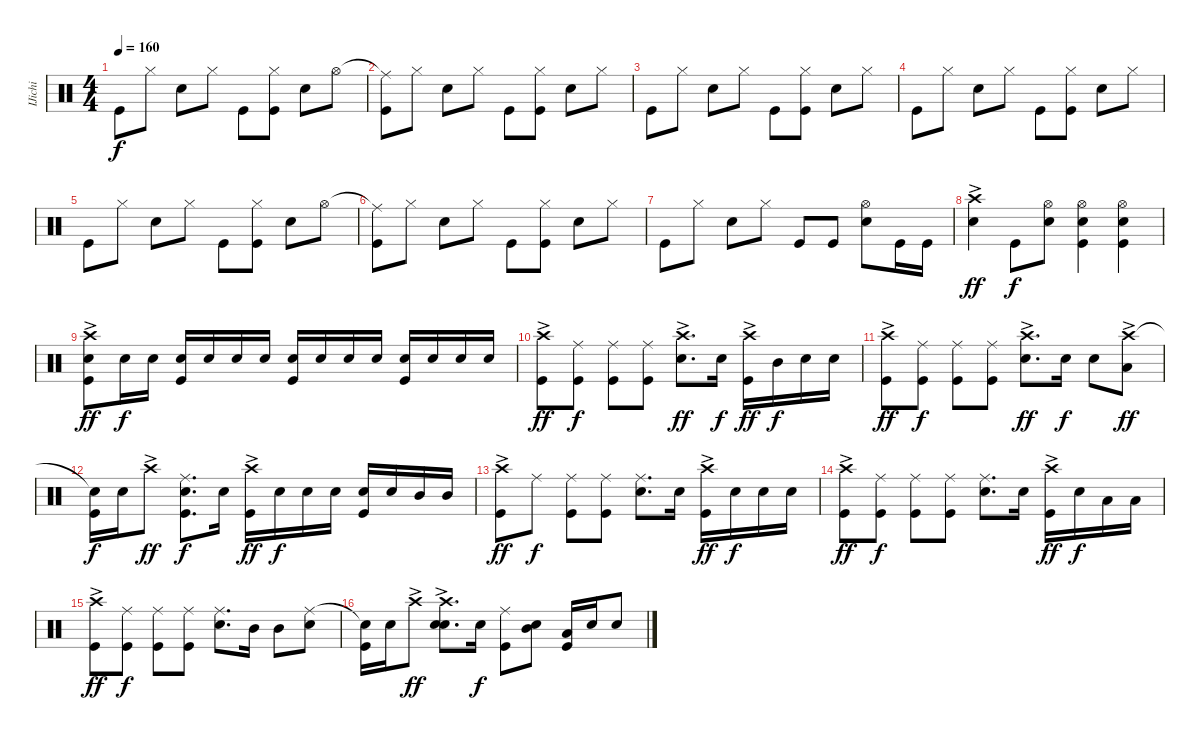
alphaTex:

\track ("IJichi" "IJichi") {instrument percussion}
\staff {score}
\articulation defaults
\ts (4 4)
\tempo 160
\clef neutral
\ks c "Kick (hit)".8{dy f} "Hi-Hat (closed)".8 "Snare (hit) 2".8 "Hi-Hat (closed)".8 "Kick (hit)".8
("Hi-Hat (closed)" "Kick (hit)").8 "Snare (hit) 2".8 "Hi-Hat (open)".8 |
("Ride (middle)"{t} "Kick (hit)").8 "Hi-Hat (closed)".8 "Snare (hit) 2".8 "Hi-Hat (closed)".8 "Kick (hit)".8 ("Hi-Hat (closed)" "Kick (hit)").8 "Snare (hit) 2".8 "Hi-Hat (closed)".8 |
"Kick (hit)".8 "Hi-Hat (closed)".8 "Snare (hit) 2".8 "Hi-Hat (closed)".8 "Kick (hit)".8 ("Hi-Hat (closed)" "Kick (hit)").8 "Snare (hit) 2".8 "Hi-Hat (closed)".8 |
"Kick (hit)".8 "Hi-Hat (closed)".8 "Snare (hit) 2".8 "Hi-Hat (closed)".8 "Kick (hit)".8 ("Hi-Hat (closed)" "Kick (hit)").8 "Snare (hit) 2".8 "Hi-Hat (closed)".8 |
"Kick (hit)".8 "Hi-Hat (closed)".8 "Snare (hit) 2".8 "Hi-Hat (closed)".8 "Kick (hit)".8 ("Hi-Hat (closed)" "Kick (hit)").8 "Snare (hit) 2".8 "Hi-Hat (open)".8 |
("Ride (middle)"{t} "Kick (hit)").8 "Hi-Hat (closed)".8 "Snare (hit) 2".8 "Hi-Hat (closed)".8 "Kick (hit)".8 ("Hi-Hat (closed)" "Kick (hit)").8 "Snare (hit) 2".8 "Hi-Hat (closed)".8 |
"Kick (hit)".8 "Hi-Hat (closed)".8 "Snare (hit) 2".8 "Hi-Hat (closed)".8 "Kick (hit)".8 "Kick (hit)".8 ("Hi-Hat (open)" "Snare (hit) 2").8 "Kick (hit)".16 "Kick (hit)".16 |
("Crash high (hit)"{ac} "Snare (hit) 2").4{dy ff} "Kick (hit)".8{dy f} ("Hi-Hat (open)" "Snare (hit) 2").8 ("Hi-Hat (open)" "Snare (hit) 2" "Kick (hit)").4 ("Hi-Hat (open)" "Snare (hit) 2" "Kick (hit)").4 |
("Crash high (hit)"{ac} "Snare (hit) 2" "Kick (hit)").8{dy ff} "Snare (hit) 2".16{dy f} "Snare (hit) 2".16 ("Snare (hit) 2" "Kick (hit)").16 "Snare (hit) 2".16 "Snare (hit) 2".16 "Snare (hit) 2".16 ("Snare (hit) 2" "Kick (hit)").16 "Snare (hit) 2".16 "Snare (hit) 2".16 "Snare (hit) 2".16 ("Snare (hit) 2" "Kick (hit)").16 "Snare (hit) 2".16 "Snare (hit) 2".16 "Snare (hit) 2".16 |
("Crash high (hit)"{ac} "Kick (hit)").8{dy ff} ("Ride (middle)" "Kick (hit)").8{dy f} ("Ride (middle)" "Kick (hit)").8 ("Ride (middle)" "Kick (hit)").8 ("Crash high (hit)"{ac} "Snare (hit) 2").8{d dy ff} "Snare (hit) 2".16{dy f} ("Crash high (hit)"{ac} "Kick (hit)").16{dy ff} "Mid Tom (hit)".16{dy f} "Snare (hit) 2".16 "Snare (hit) 2".16 |
("Crash high (hit)"{ac} "Kick (hit)").8{dy ff} ("Ride (middle)" "Kick (hit)").8{dy f} ("Ride (middle)" "Kick (hit)").8 ("Ride (middle)" "Kick (hit)").8 ("Crash high (hit)"{ac} "Snare (hit) 2").8{d dy ff} "Snare (hit) 2".16{dy f} "Snare (hit) 2".8 ("Crash high (hit)"{ac} "Low Tom (hit)").8{dy ff} |
("Snare (hit)"{t} "Kick (hit)").16{dy f} "Snare (hit) 2".16 "Crash high (hit)"{ac}.8{dy ff} ("Ride (middle)" "Snare (hit) 2" "Kick (hit)").8{d dy f} "Snare (hit) 2".16 ("Crash high (hit)"{ac} "Kick (hit)").16{dy ff} "Snare (hit) 2".16{dy f} "Snare (hit) 2".16 "Snare (hit) 2".16 ("Snare (hit) 2" "Kick (hit)").16 "Snare (hit) 2".16 "Mid Tom (hit)".16 "Mid Tom (hit)".16 |
("Crash high (hit)"{ac} "Kick (hit)").8{dy ff} "Ride (middle)".8{dy f} ("Ride (middle)" "Kick (hit)").8 ("Ride (middle)" "Kick (hit)").8 ("Ride (middle)" "Snare (hit) 2").8{d} "Snare (hit) 2".16 ("Crash high (hit)"{ac} "Kick (hit)").16{dy ff} "Snare (hit) 2".16{dy f} "Snare (hit) 2".16 "Snare (hit) 2".16 |
("Crash high (hit)"{ac} "Kick (hit)").8{dy ff} ("Ride (middle)" "Kick (hit)").8{dy f} ("Ride (middle)" "Kick (hit)").8 ("Ride (middle)" "Kick (hit)").8 ("Ride (middle)" "Snare (hit) 2").8{d} "Snare (hit) 2".16 ("Crash high (hit)"{ac} "Kick (hit)").16{dy ff} "Snare (hit) 2".16{dy f} "Low Tom (hit)".16 "Low Tom (hit)".16 |
("Crash high (hit)"{ac} "Kick (hit)").8{dy ff} ("Ride (middle)" "Kick (hit)").8{dy f} ("Ride (middle)" "Kick (hit)").8 ("Ride (middle)" "Kick (hit)").8 ("Ride (middle)" "Snare (hit) 2").8{d} "Mid Tom (hit)".16 "Mid Tom (hit)".8 ("Ride (middle)" "Snare (hit) 2").8 |
("Snare (hit)"{t} "Kick (hit)").16 "Snare (hit) 2".16 "Crash high (hit)"{ac}.8{dy ff} ("Crash high (hit)"{ac} "Snare (hit) 2" "Snare (hit) 2").8{d} "Snare (hit) 2".16{dy f} ("Ride (middle)" "Kick (hit)").8 ("Mid Tom (hit)" "Snare (hit) 2").8 ("Low Tom (hit)" "Kick (hit)").16 "Snare (hit) 2".16 "Snare (hit) 2".8
